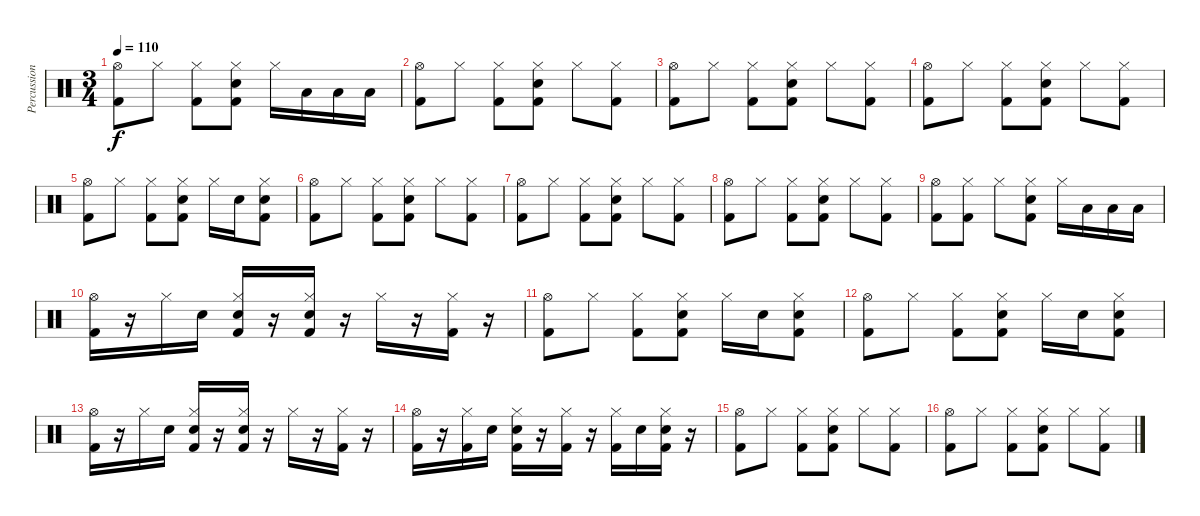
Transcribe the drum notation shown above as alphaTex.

\track ("Percussion" "Percussion") {instrument percussion}
\staff {score}
\articulation defaults
\ts (3 4)
\tempo 110
\clef neutral
\ks c
("Hi-Hat (open)" "Kick (hit) 2").8{dy f} "Hi-Hat (closed)".8 ("Hi-Hat (closed)" "Kick (hit) 2").8 ("Hi-Hat (closed)" "Electric Snare (hit)" "Kick (hit) 2").8 "Hi-Hat (closed)".16 "Low Floor Tom (hit)".16 "Low Floor Tom (hit)".16 "Low Floor Tom (hit)".16 |
("Hi-Hat (open)" "Kick (hit) 2").8 "Hi-Hat (closed)".8 ("Hi-Hat (closed)" "Kick (hit) 2").8 ("Hi-Hat (closed)" "Electric Snare (hit)" "Kick (hit) 2").8 "Hi-Hat (closed)".8 ("Hi-Hat (closed)" "Kick (hit) 2").8 |
("Hi-Hat (open)" "Kick (hit) 2").8 "Hi-Hat (closed)".8 ("Hi-Hat (closed)" "Kick (hit) 2").8 ("Hi-Hat (closed)" "Electric Snare (hit)" "Kick (hit) 2").8 "Hi-Hat (closed)".8 ("Hi-Hat (closed)" "Kick (hit) 2").8 |
("Hi-Hat (open)" "Kick (hit) 2").8 "Hi-Hat (closed)".8 ("Hi-Hat (closed)" "Kick (hit) 2").8 ("Hi-Hat (closed)" "Electric Snare (hit)" "Kick (hit) 2").8 "Hi-Hat (closed)".8 ("Hi-Hat (closed)" "Kick (hit) 2").8 |
("Hi-Hat (open)" "Kick (hit) 2").8 "Hi-Hat (closed)".8 ("Hi-Hat (closed)" "Kick (hit) 2").8 ("Hi-Hat (closed)" "Electric Snare (hit)" "Kick (hit) 2").8 "Hi-Hat (closed)".16 "Electric Snare (hit)".16 ("Hi-Hat (closed)" "Electric Snare (hit)" "Kick (hit) 2").8 |
("Hi-Hat (open)" "Kick (hit) 2").8 "Hi-Hat (closed)".8 ("Hi-Hat (closed)" "Kick (hit) 2").8 ("Hi-Hat (closed)" "Electric Snare (hit)" "Kick (hit) 2").8 "Hi-Hat (closed)".8 ("Hi-Hat (closed)" "Kick (hit) 2").8 |
("Hi-Hat (open)" "Kick (hit) 2").8 "Hi-Hat (closed)".8 ("Hi-Hat (closed)" "Kick (hit) 2").8 ("Hi-Hat (closed)" "Electric Snare (hit)" "Kick (hit) 2").8 "Hi-Hat (closed)".8 ("Hi-Hat (closed)" "Kick (hit) 2").8 |
("Hi-Hat (open)" "Kick (hit) 2").8 "Hi-Hat (closed)".8 ("Hi-Hat (closed)" "Kick (hit) 2").8 ("Hi-Hat (closed)" "Electric Snare (hit)" "Kick (hit) 2").8 "Hi-Hat (closed)".8 ("Hi-Hat (closed)" "Kick (hit) 2").8 |
("Hi-Hat (open)" "Kick (hit) 2").8 ("Hi-Hat (closed)" "Kick (hit) 2").8 "Hi-Hat (closed)".8 ("Hi-Hat (closed)" "Electric Snare (hit)" "Kick (hit) 2").8 "Hi-Hat (closed)".16 "Low Floor Tom (hit)".16 "Low Floor Tom (hit)".16 "Low Floor Tom (hit)".16 |
("Hi-Hat (open)" "Kick (hit) 2").16 r.16 "Hi-Hat (closed)".16 "Electric Snare (hit)".16 ("Hi-Hat (closed)" "Electric Snare (hit)" "Kick (hit) 2").16 r.16 ("Hi-Hat (closed)" "Electric Snare (hit)" "Kick (hit) 2").16 r.16 "Hi-Hat (closed)".16 r.16 ("Hi-Hat (closed)" "Kick (hit) 2").16 r.16 |
("Hi-Hat (open)" "Kick (hit) 2").8 "Hi-Hat (closed)".8 ("Hi-Hat (closed)" "Kick (hit) 2").8 ("Hi-Hat (closed)" "Electric Snare (hit)" "Kick (hit) 2").8 "Hi-Hat (closed)".16 "Electric Snare (hit)".16 ("Hi-Hat (closed)" "Electric Snare (hit)" "Kick (hit) 2").8 |
("Hi-Hat (open)" "Kick (hit) 2").8 "Hi-Hat (closed)".8 ("Hi-Hat (closed)" "Kick (hit) 2").8 ("Hi-Hat (closed)" "Electric Snare (hit)" "Kick (hit) 2").8 "Hi-Hat (closed)".16 "Electric Snare (hit)".16 ("Hi-Hat (closed)" "Electric Snare (hit)" "Kick (hit) 2").8 |
("Hi-Hat (open)" "Kick (hit) 2").16 r.16 "Hi-Hat (closed)".16 "Electric Snare (hit)".16 ("Hi-Hat (closed)" "Electric Snare (hit)" "Kick (hit) 2").16 r.16 ("Hi-Hat (closed)" "Electric Snare (hit)" "Kick (hit) 2").16 r.16 "Hi-Hat (closed)".16 r.16 ("Hi-Hat (closed)" "Kick (hit) 2").16 r.16 |
("Hi-Hat (open)" "Kick (hit) 2").16 r.16 ("Hi-Hat (closed)" "Kick (hit) 2").16 "Electric Snare (hit)".16 ("Hi-Hat (closed)" "Electric Snare (hit)" "Kick (hit) 2").16 r.16 ("Hi-Hat (closed)" "Kick (hit) 2").16 r.16 ("Hi-Hat (closed)" "Kick (hit) 2").16 "Electric Snare (hit)".16 ("Hi-Hat (closed)" "Electric Snare (hit)" "Kick (hit) 2").16 r.16 |
("Hi-Hat (open)" "Kick (hit) 2").8 "Hi-Hat (closed)".8 ("Hi-Hat (closed)" "Kick (hit) 2").8 ("Hi-Hat (closed)" "Electric Snare (hit)" "Kick (hit) 2").8 "Hi-Hat (closed)".8 ("Hi-Hat (closed)" "Kick (hit) 2").8 |
("Hi-Hat (open)" "Kick (hit) 2").8 "Hi-Hat (closed)".8 ("Hi-Hat (closed)" "Kick (hit) 2").8 ("Hi-Hat (closed)" "Electric Snare (hit)" "Kick (hit) 2").8 "Hi-Hat (closed)".8 ("Hi-Hat (closed)" "Kick (hit) 2").8
